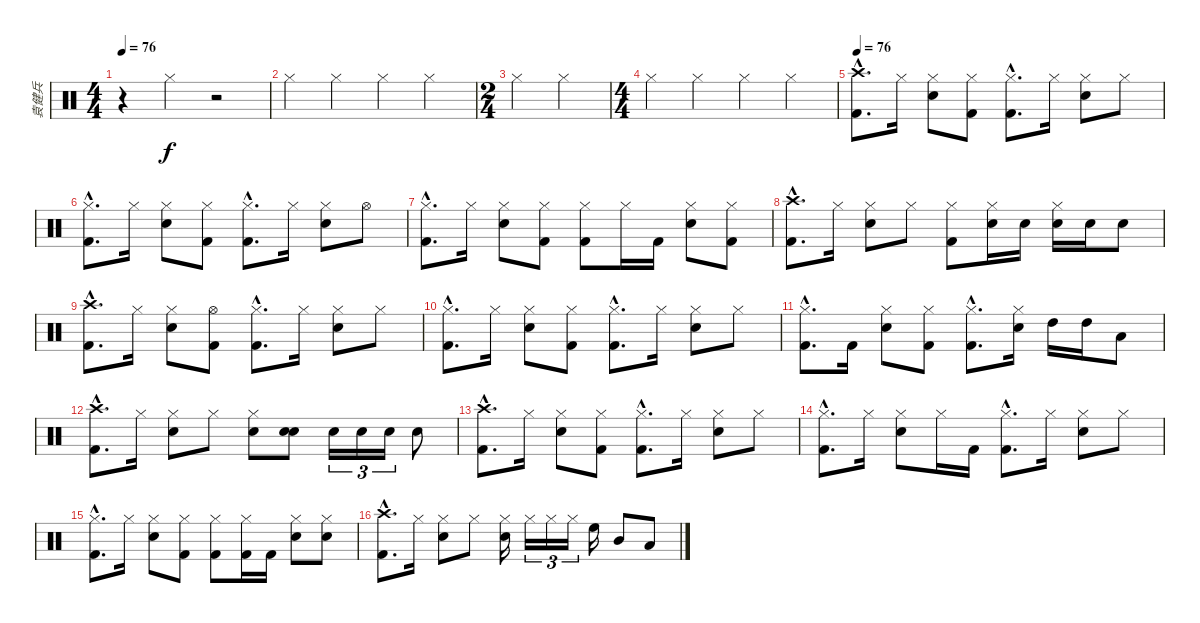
\track ("袁健兵" "袁健兵") {instrument percussion}
\staff {score}
\articulation defaults
\ts (4 4)
\tempo 76
\clef neutral
\ks c
r.4{dy f} "Hi-Hat (closed)".4 r.2 |
"Hi-Hat (closed)".4 "Hi-Hat (closed)".4 "Hi-Hat (closed)".4 "Hi-Hat (closed)".4 |
\ts (2 4)
"Hi-Hat (closed)".4 "Hi-Hat (closed)".4 |
\ts (4 4)
"Hi-Hat (closed)".4 "Hi-Hat (closed)".4 "Hi-Hat (closed)".4 "Hi-Hat (closed)".4 |
\tempo 76
("Crash high (hit)"{hac} "Kick (hit) 2"{hac}).8{d} "Hi-Hat (closed)".16 ("Hi-Hat (closed)" "Snare (hit) 2").8 ("Hi-Hat (closed)" "Kick (hit) 2").8 ("Hi-Hat (closed)"{hac} "Kick (hit) 2"{hac}).8{d} "Hi-Hat (closed)".16 ("Hi-Hat (closed)" "Snare (hit) 2").8 "Hi-Hat (closed)".8 |
("Hi-Hat (closed)"{hac} "Kick (hit) 2"{hac}).8{d} "Hi-Hat (closed)".16 ("Hi-Hat (closed)" "Snare (hit) 2").8 ("Hi-Hat (closed)" "Kick (hit) 2").8 ("Hi-Hat (closed)"{hac} "Kick (hit) 2"{hac}).8{d} "Hi-Hat (closed)".16 ("Hi-Hat (closed)" "Snare (hit) 2").8 "Hi-Hat (open)".8 |
("Hi-Hat (closed)"{hac} "Kick (hit) 2"{hac}).8{d} "Hi-Hat (closed)".16 ("Hi-Hat (closed)" "Snare (hit) 2").8 ("Hi-Hat (closed)" "Kick (hit) 2").8 ("Hi-Hat (closed)" "Kick (hit) 2").8 "Hi-Hat (closed)".16 "Kick (hit) 2".16 ("Hi-Hat (closed)" "Snare (hit) 2").8 ("Hi-Hat (closed)" "Kick (hit) 2").8 |
("Crash high (hit)"{hac} "Kick (hit) 2"{hac}).8{d} "Hi-Hat (closed)".16 ("Hi-Hat (closed)" "Snare (hit) 2").8 "Hi-Hat (closed)".8 ("Hi-Hat (closed)" "Kick (hit) 2").8 ("Hi-Hat (closed)" "Snare (hit) 2").16 "Snare (hit) 2".16 ("Hi-Hat (closed)" "Snare (hit) 2").16 "Snare (hit) 2".16 "Snare (hit) 2".8 |
("Crash high (hit)"{hac} "Kick (hit) 2"{hac}).8{d} "Hi-Hat (closed)".16 ("Hi-Hat (closed)" "Snare (hit) 2").8 ("Hi-Hat (open)" "Kick (hit) 2").8 ("Hi-Hat (closed)"{hac} "Kick (hit) 2"{hac}).8{d} "Hi-Hat (closed)".16 ("Hi-Hat (closed)" "Snare (hit) 2").8 "Hi-Hat (closed)".8 |
("Hi-Hat (closed)"{hac} "Kick (hit) 2"{hac}).8{d} "Hi-Hat (closed)".16 ("Hi-Hat (closed)" "Snare (hit) 2").8 ("Hi-Hat (closed)" "Kick (hit) 2").8 ("Hi-Hat (closed)"{hac} "Kick (hit) 2"{hac}).8{d} "Hi-Hat (closed)".16 ("Hi-Hat (closed)" "Snare (hit) 2").8 "Hi-Hat (closed)".8 |
("Hi-Hat (closed)"{hac} "Kick (hit) 2"{hac}).8{d} "Kick (hit) 2".16 ("Hi-Hat (closed)" "Snare (hit) 2").8 ("Hi-Hat (closed)" "Kick (hit) 2").8 ("Hi-Hat (closed)"{hac} "Kick (hit) 2"{hac}).8{d} ("Hi-Hat (closed)" "Snare (hit) 2").16 "High Tom (hit)".16 "High Tom (hit)".16 "Low Tom (hit)".8 |
("Crash high (hit)"{hac} "Kick (hit) 2"{hac}).8{d} "Hi-Hat (closed)".16 ("Hi-Hat (closed)" "Snare (hit) 2").8 "Hi-Hat (closed)".8 ("Hi-Hat (closed)" "Snare (hit) 2").8 ("Snare (hit)" "Snare (hit) 2").8 "Snare (hit) 2".16{tu (3 2)} "Snare (hit) 2".16{tu (3 2)} "Snare (hit) 2".16{tu (3 2)} "Snare (hit) 2".8 |
("Crash high (hit)"{hac} "Kick (hit) 2"{hac}).8{d} "Hi-Hat (closed)".16 ("Hi-Hat (closed)" "Snare (hit) 2").8 ("Hi-Hat (closed)" "Kick (hit) 2").8 ("Hi-Hat (closed)"{hac} "Kick (hit) 2"{hac}).8{d} "Hi-Hat (closed)".16 ("Hi-Hat (closed)" "Snare (hit) 2").8 "Hi-Hat (closed)".8 |
("Hi-Hat (closed)"{hac} "Kick (hit) 2"{hac}).8{d} "Hi-Hat (closed)".16 ("Hi-Hat (closed)" "Snare (hit) 2").8 "Hi-Hat (closed)".16 "Kick (hit) 2".16 ("Hi-Hat (closed)"{hac} "Kick (hit) 2"{hac}).8{d} "Hi-Hat (closed)".16 ("Hi-Hat (closed)" "Snare (hit) 2").8 "Hi-Hat (closed)".8 |
("Hi-Hat (closed)"{hac} "Kick (hit) 2"{hac}).8{d} "Hi-Hat (closed)".16 ("Hi-Hat (closed)" "Snare (hit) 2").8 ("Hi-Hat (closed)" "Kick (hit) 2").8 ("Hi-Hat (closed)" "Kick (hit) 2").8 ("Hi-Hat (closed)" "Kick (hit) 2").16 "Kick (hit) 2".16 ("Hi-Hat (closed)" "Snare (hit) 2").8 ("Hi-Hat (closed)" "Snare (hit) 2").8 |
("Crash high (hit)"{hac} "Kick (hit) 2"{hac}).8{d} "Hi-Hat (closed)".16 ("Hi-Hat (closed)" "Snare (hit) 2").8 "Hi-Hat (closed)".8 ("Hi-Hat (closed)" "Snare (hit) 2").16 "Hi-Hat (closed)".16{tu (3 2)} "Hi-Hat (closed)".16{tu (3 2)} "Hi-Hat (closed)".16{tu (3 2)} "High Floor Tom (hit)".16 "Mid Tom (hit)".8 "Low Tom (hit)".8
